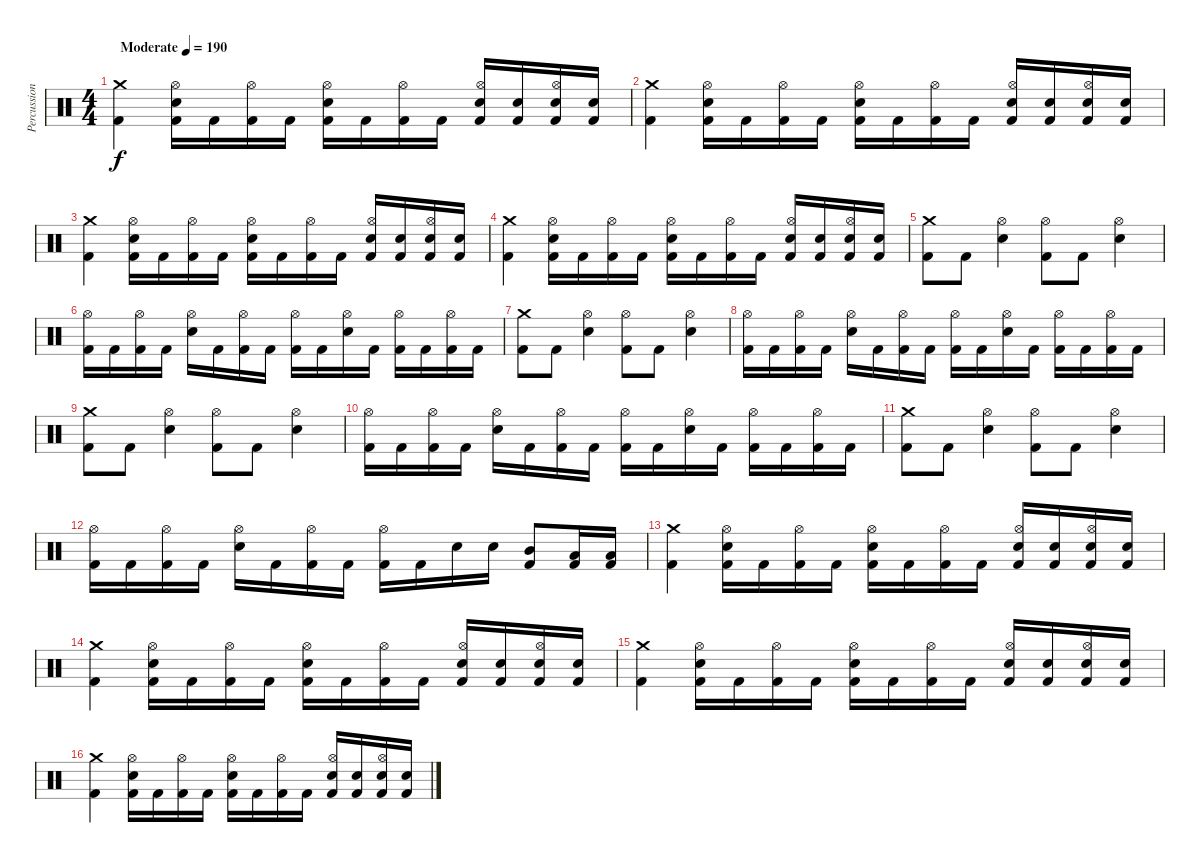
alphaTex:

\track ("Percussion" "Percussion") {instrument percussion}
\staff {score}
\articulation defaults
\ts (4 4)
\tempo (190 "Moderate")
\clef neutral
\ks c
("Crash medium (hit)" "Kick (hit) 2").4{dy f} ("Hi-Hat (open)" "Electric Snare (hit)" "Kick (hit) 2").16 "Kick (hit) 2".16 ("Hi-Hat (open)" "Kick (hit) 2").16 "Kick (hit) 2".16 ("Hi-Hat (open)" "Electric Snare (hit)" "Kick (hit) 2").16 "Kick (hit) 2".16 ("Hi-Hat (open)" "Kick (hit) 2").16 "Kick (hit) 2".16 ("Hi-Hat (open)" "Electric Snare (hit)" "Kick (hit) 2").16 ("Electric Snare (hit)" "Kick (hit) 2").16 ("Hi-Hat (open)" "Electric Snare (hit)" "Kick (hit) 2").16 ("Electric Snare (hit)" "Kick (hit) 2").16 |
("Crash medium (hit)" "Kick (hit) 2").4 ("Hi-Hat (open)" "Electric Snare (hit)" "Kick (hit) 2").16 "Kick (hit) 2".16 ("Hi-Hat (open)" "Kick (hit) 2").16 "Kick (hit) 2".16 ("Hi-Hat (open)" "Electric Snare (hit)" "Kick (hit) 2").16 "Kick (hit) 2".16 ("Hi-Hat (open)" "Kick (hit) 2").16 "Kick (hit) 2".16 ("Hi-Hat (open)" "Electric Snare (hit)" "Kick (hit) 2").16 ("Electric Snare (hit)" "Kick (hit) 2").16 ("Hi-Hat (open)" "Electric Snare (hit)" "Kick (hit) 2").16 ("Electric Snare (hit)" "Kick (hit) 2").16 |
("Crash medium (hit)" "Kick (hit) 2").4 ("Hi-Hat (open)" "Electric Snare (hit)" "Kick (hit) 2").16 "Kick (hit) 2".16 ("Hi-Hat (open)" "Kick (hit) 2").16 "Kick (hit) 2".16 ("Hi-Hat (open)" "Electric Snare (hit)" "Kick (hit) 2").16 "Kick (hit) 2".16 ("Hi-Hat (open)" "Kick (hit) 2").16 "Kick (hit) 2".16 ("Hi-Hat (open)" "Electric Snare (hit)" "Kick (hit) 2").16 ("Electric Snare (hit)" "Kick (hit) 2").16 ("Hi-Hat (open)" "Electric Snare (hit)" "Kick (hit) 2").16 ("Electric Snare (hit)" "Kick (hit) 2").16 |
("Crash medium (hit)" "Kick (hit) 2").4 ("Hi-Hat (open)" "Electric Snare (hit)" "Kick (hit) 2").16 "Kick (hit) 2".16 ("Hi-Hat (open)" "Kick (hit) 2").16 "Kick (hit) 2".16 ("Hi-Hat (open)" "Electric Snare (hit)" "Kick (hit) 2").16 "Kick (hit) 2".16 ("Hi-Hat (open)" "Kick (hit) 2").16 "Kick (hit) 2".16 ("Hi-Hat (open)" "Electric Snare (hit)" "Kick (hit) 2").16 ("Electric Snare (hit)" "Kick (hit) 2").16 ("Hi-Hat (open)" "Electric Snare (hit)" "Kick (hit) 2").16 ("Electric Snare (hit)" "Kick (hit) 2").16 |
("Crash medium (hit)" "Kick (hit) 2").8 "Kick (hit) 2".8 ("Hi-Hat (open)" "Electric Snare (hit)").4 ("Hi-Hat (open)" "Kick (hit) 2").8 "Kick (hit) 2".8 ("Hi-Hat (open)" "Electric Snare (hit)").4 |
("Hi-Hat (open)" "Kick (hit) 2").16 "Kick (hit) 2".16 ("Hi-Hat (open)" "Kick (hit) 2").16 "Kick (hit) 2".16 ("Hi-Hat (open)" "Electric Snare (hit)").16 "Kick (hit) 2".16 ("Hi-Hat (open)" "Kick (hit) 2").16 "Kick (hit) 2".16 ("Hi-Hat (open)" "Kick (hit) 2").16 "Kick (hit) 2".16 ("Hi-Hat (open)" "Electric Snare (hit)").16 "Kick (hit) 2".16 ("Hi-Hat (open)" "Kick (hit) 2").16 "Kick (hit) 2".16 ("Hi-Hat (open)" "Kick (hit) 2").16 "Kick (hit) 2".16 |
("Crash medium (hit)" "Kick (hit) 2").8 "Kick (hit) 2".8 ("Hi-Hat (open)" "Electric Snare (hit)").4 ("Hi-Hat (open)" "Kick (hit) 2").8 "Kick (hit) 2".8 ("Hi-Hat (open)" "Electric Snare (hit)").4 |
("Hi-Hat (open)" "Kick (hit) 2").16 "Kick (hit) 2".16 ("Hi-Hat (open)" "Kick (hit) 2").16 "Kick (hit) 2".16 ("Hi-Hat (open)" "Electric Snare (hit)").16 "Kick (hit) 2".16 ("Hi-Hat (open)" "Kick (hit) 2").16 "Kick (hit) 2".16 ("Hi-Hat (open)" "Kick (hit) 2").16 "Kick (hit) 2".16 ("Hi-Hat (open)" "Electric Snare (hit)").16 "Kick (hit) 2".16 ("Hi-Hat (open)" "Kick (hit) 2").16 "Kick (hit) 2".16 ("Hi-Hat (open)" "Kick (hit) 2").16 "Kick (hit) 2".16 |
("Crash medium (hit)" "Kick (hit) 2").8 "Kick (hit) 2".8 ("Hi-Hat (open)" "Electric Snare (hit)").4 ("Hi-Hat (open)" "Kick (hit) 2").8 "Kick (hit) 2".8 ("Hi-Hat (open)" "Electric Snare (hit)").4 |
("Hi-Hat (open)" "Kick (hit) 2").16 "Kick (hit) 2".16 ("Hi-Hat (open)" "Kick (hit) 2").16 "Kick (hit) 2".16 ("Hi-Hat (open)" "Electric Snare (hit)").16 "Kick (hit) 2".16 ("Hi-Hat (open)" "Kick (hit) 2").16 "Kick (hit) 2".16 ("Hi-Hat (open)" "Kick (hit) 2").16 "Kick (hit) 2".16 ("Hi-Hat (open)" "Electric Snare (hit)").16 "Kick (hit) 2".16 ("Hi-Hat (open)" "Kick (hit) 2").16 "Kick (hit) 2".16 ("Hi-Hat (open)" "Kick (hit) 2").16 "Kick (hit) 2".16 |
("Crash medium (hit)" "Kick (hit) 2").8 "Kick (hit) 2".8 ("Hi-Hat (open)" "Electric Snare (hit)").4 ("Hi-Hat (open)" "Kick (hit) 2").8 "Kick (hit) 2".8 ("Hi-Hat (open)" "Electric Snare (hit)").4 |
("Hi-Hat (open)" "Kick (hit) 2").16 "Kick (hit) 2".16 ("Hi-Hat (open)" "Kick (hit) 2").16 "Kick (hit) 2".16 ("Hi-Hat (open)" "Electric Snare (hit)").16 "Kick (hit) 2".16 ("Hi-Hat (open)" "Kick (hit) 2").16 "Kick (hit) 2".16 ("Hi-Hat (open)" "Kick (hit) 2").16 "Kick (hit) 2".16 "Electric Snare (hit)".16 "Electric Snare (hit)".16 ("Mid Tom (hit)" "Kick (hit) 2").8 ("Low Tom (hit)" "Kick (hit) 2").16 ("Low Tom (hit)" "Kick (hit) 2").16 |
("Crash medium (hit)" "Kick (hit) 2").4 ("Hi-Hat (open)" "Electric Snare (hit)" "Kick (hit) 2").16 "Kick (hit) 2".16 ("Hi-Hat (open)" "Kick (hit) 2").16 "Kick (hit) 2".16 ("Hi-Hat (open)" "Electric Snare (hit)" "Kick (hit) 2").16 "Kick (hit) 2".16 ("Hi-Hat (open)" "Kick (hit) 2").16 "Kick (hit) 2".16 ("Hi-Hat (open)" "Electric Snare (hit)" "Kick (hit) 2").16 ("Electric Snare (hit)" "Kick (hit) 2").16 ("Hi-Hat (open)" "Electric Snare (hit)" "Kick (hit) 2").16 ("Electric Snare (hit)" "Kick (hit) 2").16 |
("Crash medium (hit)" "Kick (hit) 2").4 ("Hi-Hat (open)" "Electric Snare (hit)" "Kick (hit) 2").16 "Kick (hit) 2".16 ("Hi-Hat (open)" "Kick (hit) 2").16 "Kick (hit) 2".16 ("Hi-Hat (open)" "Electric Snare (hit)" "Kick (hit) 2").16 "Kick (hit) 2".16 ("Hi-Hat (open)" "Kick (hit) 2").16 "Kick (hit) 2".16 ("Hi-Hat (open)" "Electric Snare (hit)" "Kick (hit) 2").16 ("Electric Snare (hit)" "Kick (hit) 2").16 ("Hi-Hat (open)" "Electric Snare (hit)" "Kick (hit) 2").16 ("Electric Snare (hit)" "Kick (hit) 2").16 |
("Crash medium (hit)" "Kick (hit) 2").4 ("Hi-Hat (open)" "Electric Snare (hit)" "Kick (hit) 2").16 "Kick (hit) 2".16 ("Hi-Hat (open)" "Kick (hit) 2").16 "Kick (hit) 2".16 ("Hi-Hat (open)" "Electric Snare (hit)" "Kick (hit) 2").16 "Kick (hit) 2".16 ("Hi-Hat (open)" "Kick (hit) 2").16 "Kick (hit) 2".16 ("Hi-Hat (open)" "Electric Snare (hit)" "Kick (hit) 2").16 ("Electric Snare (hit)" "Kick (hit) 2").16 ("Hi-Hat (open)" "Electric Snare (hit)" "Kick (hit) 2").16 ("Electric Snare (hit)" "Kick (hit) 2").16 |
("Crash medium (hit)" "Kick (hit) 2").4 ("Hi-Hat (open)" "Electric Snare (hit)" "Kick (hit) 2").16 "Kick (hit) 2".16 ("Hi-Hat (open)" "Kick (hit) 2").16 "Kick (hit) 2".16 ("Hi-Hat (open)" "Electric Snare (hit)" "Kick (hit) 2").16 "Kick (hit) 2".16 ("Hi-Hat (open)" "Kick (hit) 2").16 "Kick (hit) 2".16 ("Hi-Hat (open)" "Electric Snare (hit)" "Kick (hit) 2").16 ("Electric Snare (hit)" "Kick (hit) 2").16 ("Hi-Hat (open)" "Electric Snare (hit)" "Kick (hit) 2").16 ("Electric Snare (hit)" "Kick (hit) 2").16
